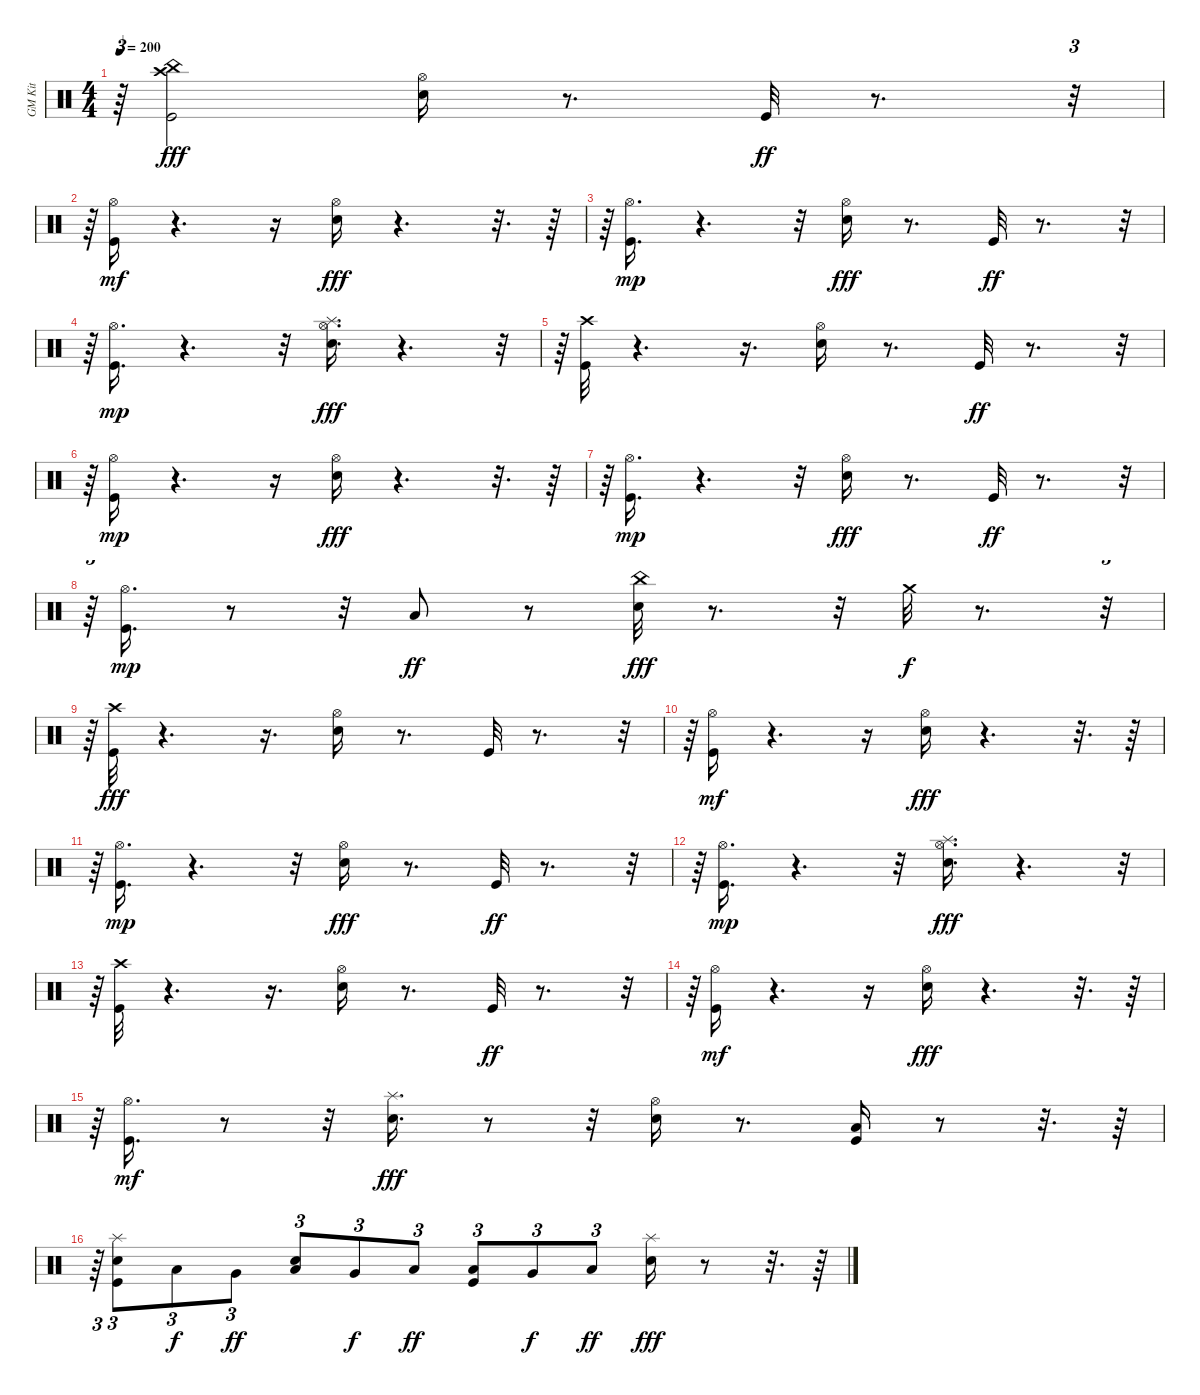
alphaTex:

\track ("GM Kit" "GM Kit") {instrument percussion}
\staff {score}
\articulation defaults
\ts (4 4)
\tempo 200
\clef neutral
\ks c
r.64{tu (3 2) dy fff} ("Kick (hit)" "Crash high (hit)" "China (hit)").2 ("Snare (hit) 2" "Hi-Hat (open)").16 r.8{d} "Kick (hit)".32{dy ff} r.8{d} r.32{tu (3 2)} |
r.64{tu (3 2)} ("Kick (hit)" "Hi-Hat (open)").16{dy mf} r.4{d} r.16 ("Snare (hit) 2" "Hi-Hat (open)").16{dy fff} r.4{d} r.32{d} r.64 |
r.64{tu (3 2)} ("Kick (hit)" "Hi-Hat (open)").16{d dy mp} r.4{d} r.32 ("Snare (hit) 2" "Hi-Hat (open)").16{dy fff} r.8{d} "Kick (hit)".32{dy ff} r.8{d} r.32{tu (3 2)} |
r.64{tu (3 2)} ("Kick (hit)" "Hi-Hat (open)").16{d dy mp} r.4{d} r.32 ("Snare (hit) 2" "Hi-Hat (open)" "Splash (hit)").16{d dy fff} r.4{d} r.32{tu (3 2)} |
r.64{tu (3 2)} ("Kick (hit)" "Crash high (hit)").32 r.4{d} r.16{d} ("Snare (hit) 2" "Hi-Hat (open)").16 r.8{d} "Kick (hit)".32{dy ff} r.8{d} r.32{tu (3 2)} |
r.64{tu (3 2)} ("Kick (hit)" "Hi-Hat (open)").16{dy mp} r.4{d} r.16 ("Snare (hit) 2" "Hi-Hat (open)").16{dy fff} r.4{d} r.32{d} r.64 |
r.64{tu (3 2)} ("Kick (hit)" "Hi-Hat (open)").16{d dy mp} r.4{d} r.32 ("Snare (hit) 2" "Hi-Hat (open)").16{dy fff} r.8{d} "Kick (hit)".32{dy ff} r.8{d} r.32{tu (3 2)} |
r.64{tu (3 2)} ("Kick (hit)" "Hi-Hat (open)").16{d dy mp} r.8 r.32 "Low Tom (hit)".8{dy ff} r.8 ("Snare (hit) 2" "China (hit)").32{dy fff} r.8{d} r.32 "Crash medium (hit)".32{dy f} r.8{d} r.32{tu (3 2)} |
r.64{tu (3 2)} ("Kick (hit)" "Crash high (hit)").32{dy fff} r.4{d} r.16{d} ("Snare (hit) 2" "Hi-Hat (open)").16 r.8{d} "Kick (hit)".32 r.8{d} r.32{tu (3 2)} |
r.64{tu (3 2)} ("Kick (hit)" "Hi-Hat (open)").16{dy mf} r.4{d} r.16 ("Snare (hit) 2" "Hi-Hat (open)").16{dy fff} r.4{d} r.32{d} r.64 |
r.64{tu (3 2)} ("Kick (hit)" "Hi-Hat (open)").16{d dy mp} r.4{d} r.32 ("Snare (hit) 2" "Hi-Hat (open)").16{dy fff} r.8{d} "Kick (hit)".32{dy ff} r.8{d} r.32{tu (3 2)} |
r.64{tu (3 2)} ("Kick (hit)" "Hi-Hat (open)").16{d dy mp} r.4{d} r.32 ("Snare (hit) 2" "Hi-Hat (open)" "Splash (hit)").16{d dy fff} r.4{d} r.32{tu (3 2)} |
r.64{tu (3 2)} ("Kick (hit)" "Crash high (hit)").32 r.4{d} r.16{d} ("Snare (hit) 2" "Hi-Hat (open)").16 r.8{d} "Kick (hit)".32{dy ff} r.8{d} r.32{tu (3 2)} |
r.64{tu (3 2)} ("Kick (hit)" "Hi-Hat (open)").16{dy mf} r.4{d} r.16 ("Snare (hit) 2" "Hi-Hat (open)").16{dy fff} r.4{d} r.32{d} r.64 |
r.64{tu (3 2)} ("Kick (hit)" "Hi-Hat (open)").16{d dy mf} r.8 r.32 ("Snare (hit) 2" "Splash (hit)").16{d dy fff} r.8 r.32 ("Snare (hit) 2" "Hi-Hat (open)").16 r.8{d} ("Kick (hit)" "Low Tom (hit)").16 r.8 r.32{d} r.64 |
r.64{tu (3 2)} ("Kick (hit)" "Snare (hit) 2" "Splash (hit)").8{tu (3 2)} "Low Tom (hit)".8{tu (3 2) dy f} "Very Low Tom (hit)".8{tu (3 2) dy ff} ("Snare (hit) 2" "Low Tom (hit)").8{tu (3 2)} "Very Low Tom (hit)".8{tu (3 2) dy f} "Low Floor Tom (hit)".8{tu (3 2) dy ff} ("Kick (hit)" "Low Tom (hit)").8{tu (3 2)} "Very Low Tom (hit)".8{tu (3 2) dy f} "Low Floor Tom (hit)".8{tu (3 2) dy ff} ("Snare (hit) 2" "Splash (hit)").16{dy fff} r.8 r.32{d} r.64
